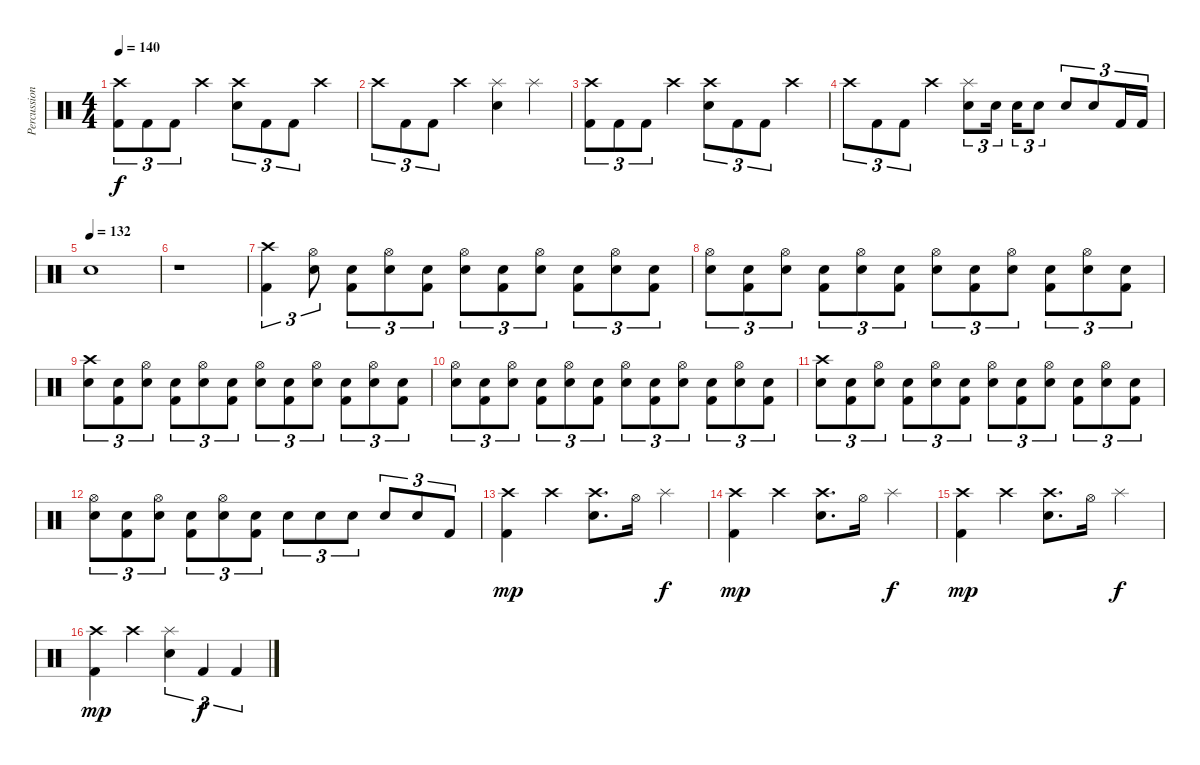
\track ("Percussion" "Percussion") {instrument percussion}
\staff {score}
\articulation defaults
\ts (4 4)
\tempo 140
\clef neutral
\ks c
("Crash high (hit)" "Kick (hit) 2").8{tu (3 2) dy f} "Kick (hit) 2".8{tu (3 2)} "Kick (hit) 2".8{tu (3 2)} "Crash high (hit)".4 ("Crash high (hit)" "Snare (hit) 2").8{tu (3 2)} "Kick (hit) 2".8{tu (3 2)} "Kick (hit) 2".8{tu (3 2)} "Crash high (hit)".4 |
"Crash high (hit)".8{tu (3 2)} "Kick (hit) 2".8{tu (3 2)} "Kick (hit) 2".8{tu (3 2)} "Crash high (hit)".4 ("Splash (hit)" "Snare (hit) 2").4 "Splash (hit)".4 |
("Crash high (hit)" "Kick (hit) 2").8{tu (3 2)} "Kick (hit) 2".8{tu (3 2)} "Kick (hit) 2".8{tu (3 2)} "Crash high (hit)".4 ("Crash high (hit)" "Snare (hit) 2").8{tu (3 2)} "Kick (hit) 2".8{tu (3 2)} "Kick (hit) 2".8{tu (3 2)} "Crash high (hit)".4 |
"Crash high (hit)".8{tu (3 2)} "Kick (hit) 2".8{tu (3 2)} "Kick (hit) 2".8{tu (3 2)} "Crash high (hit)".4 ("Splash (hit)" "Snare (hit) 2").8{tu (3 2)} "Snare (hit) 2".16{tu (3 2) beam splitsecondary} "Snare (hit) 2".16{tu (3 2)} "Snare (hit) 2".8{tu (3 2)} "Snare (hit) 2".8{tu (3 2)} "Snare (hit) 2".8{tu (3 2)} "Kick (hit) 2".16{tu (3 2)} "Kick (hit) 2".16{tu (3 2)} |
\tempo (132)
"Snare (hit) 2".1 |
r.1 |
("Crash high (hit)" "Kick (hit) 2").4{tu (3 2)} ("Hi-Hat (open)" "Snare (hit) 2").8{tu (3 2)} ("Snare (hit) 2" "Kick (hit) 2").8{tu (3 2)} ("Hi-Hat (open)" "Snare (hit) 2").8{tu (3 2)} ("Snare (hit) 2" "Kick (hit) 2").8{tu (3 2)} ("Hi-Hat (open)" "Snare (hit) 2").8{tu (3 2)} ("Snare (hit) 2" "Kick (hit) 2").8{tu (3 2)} ("Hi-Hat (open)" "Snare (hit) 2").8{tu (3 2)} ("Snare (hit) 2" "Kick (hit) 2").8{tu (3 2)} ("Hi-Hat (open)" "Snare (hit) 2").8{tu (3 2)} ("Snare (hit) 2" "Kick (hit) 2").8{tu (3 2)} |
("Hi-Hat (open)" "Snare (hit) 2").8{tu (3 2)} ("Snare (hit) 2" "Kick (hit) 2").8{tu (3 2)} ("Hi-Hat (open)" "Snare (hit) 2").8{tu (3 2)} ("Snare (hit) 2" "Kick (hit) 2").8{tu (3 2)} ("Hi-Hat (open)" "Snare (hit) 2").8{tu (3 2)} ("Snare (hit) 2" "Kick (hit) 2").8{tu (3 2)} ("Hi-Hat (open)" "Snare (hit) 2").8{tu (3 2)} ("Snare (hit) 2" "Kick (hit) 2").8{tu (3 2)} ("Hi-Hat (open)" "Snare (hit) 2").8{tu (3 2)} ("Snare (hit) 2" "Kick (hit) 2").8{tu (3 2)} ("Hi-Hat (open)" "Snare (hit) 2").8{tu (3 2)} ("Snare (hit) 2" "Kick (hit) 2").8{tu (3 2)} |
("Crash high (hit)" "Snare (hit) 2").8{tu (3 2)} ("Snare (hit) 2" "Kick (hit) 2").8{tu (3 2)} ("Hi-Hat (open)" "Snare (hit) 2").8{tu (3 2)} ("Snare (hit) 2" "Kick (hit) 2").8{tu (3 2)} ("Hi-Hat (open)" "Snare (hit) 2").8{tu (3 2)} ("Snare (hit) 2" "Kick (hit) 2").8{tu (3 2)} ("Hi-Hat (open)" "Snare (hit) 2").8{tu (3 2)} ("Snare (hit) 2" "Kick (hit) 2").8{tu (3 2)} ("Hi-Hat (open)" "Snare (hit) 2").8{tu (3 2)} ("Snare (hit) 2" "Kick (hit) 2").8{tu (3 2)} ("Hi-Hat (open)" "Snare (hit) 2").8{tu (3 2)} ("Snare (hit) 2" "Kick (hit) 2").8{tu (3 2)} |
("Hi-Hat (open)" "Snare (hit) 2").8{tu (3 2)} ("Snare (hit) 2" "Kick (hit) 2").8{tu (3 2)} ("Hi-Hat (open)" "Snare (hit) 2").8{tu (3 2)} ("Snare (hit) 2" "Kick (hit) 2").8{tu (3 2)} ("Hi-Hat (open)" "Snare (hit) 2").8{tu (3 2)} ("Snare (hit) 2" "Kick (hit) 2").8{tu (3 2)} ("Hi-Hat (open)" "Snare (hit) 2").8{tu (3 2)} ("Snare (hit) 2" "Kick (hit) 2").8{tu (3 2)} ("Hi-Hat (open)" "Snare (hit) 2").8{tu (3 2)} ("Snare (hit) 2" "Kick (hit) 2").8{tu (3 2)} ("Hi-Hat (open)" "Snare (hit) 2").8{tu (3 2)} ("Snare (hit) 2" "Kick (hit) 2").8{tu (3 2)} |
("Crash high (hit)" "Snare (hit) 2").8{tu (3 2)} ("Snare (hit) 2" "Kick (hit) 2").8{tu (3 2)} ("Hi-Hat (open)" "Snare (hit) 2").8{tu (3 2)} ("Snare (hit) 2" "Kick (hit) 2").8{tu (3 2)} ("Hi-Hat (open)" "Snare (hit) 2").8{tu (3 2)} ("Snare (hit) 2" "Kick (hit) 2").8{tu (3 2)} ("Hi-Hat (open)" "Snare (hit) 2").8{tu (3 2)} ("Snare (hit) 2" "Kick (hit) 2").8{tu (3 2)} ("Hi-Hat (open)" "Snare (hit) 2").8{tu (3 2)} ("Snare (hit) 2" "Kick (hit) 2").8{tu (3 2)} ("Hi-Hat (open)" "Snare (hit) 2").8{tu (3 2)} ("Snare (hit) 2" "Kick (hit) 2").8{tu (3 2)} |
("Hi-Hat (open)" "Snare (hit) 2").8{tu (3 2)} ("Snare (hit) 2" "Kick (hit) 2").8{tu (3 2)} ("Hi-Hat (open)" "Snare (hit) 2").8{tu (3 2)} ("Snare (hit) 2" "Kick (hit) 2").8{tu (3 2)} ("Hi-Hat (open)" "Snare (hit) 2").8{tu (3 2)} ("Snare (hit) 2" "Kick (hit) 2").8{tu (3 2)} "Snare (hit) 2".8{tu (3 2)} "Snare (hit) 2".8{tu (3 2)} "Snare (hit) 2".8{tu (3 2)} "Snare (hit) 2".8{tu (3 2)} "Snare (hit) 2".8{tu (3 2)} "Kick (hit) 2".8{tu (3 2)} |
("Crash high (hit)" "Kick (hit) 2").4{dy mp} "Crash high (hit)".4 ("Crash high (hit)" "Snare (hit) 2").8{d} "Hi-Hat (open)".16 "Splash (hit)".4{dy f} |
("Crash high (hit)" "Kick (hit) 2").4{dy mp} "Crash high (hit)".4 ("Crash high (hit)" "Snare (hit) 2").8{d} "Hi-Hat (open)".16 "Splash (hit)".4{dy f} |
("Crash high (hit)" "Kick (hit) 2").4{dy mp} "Crash high (hit)".4 ("Crash high (hit)" "Snare (hit) 2").8{d} "Hi-Hat (open)".16 "Splash (hit)".4{dy f} |
("Crash high (hit)" "Kick (hit) 2").4{dy mp} "Crash high (hit)".4 ("Splash (hit)" "Snare (hit) 2").4{tu (3 2)} "Kick (hit) 2".4{tu (3 2) dy f} "Kick (hit) 2".4{tu (3 2)}
